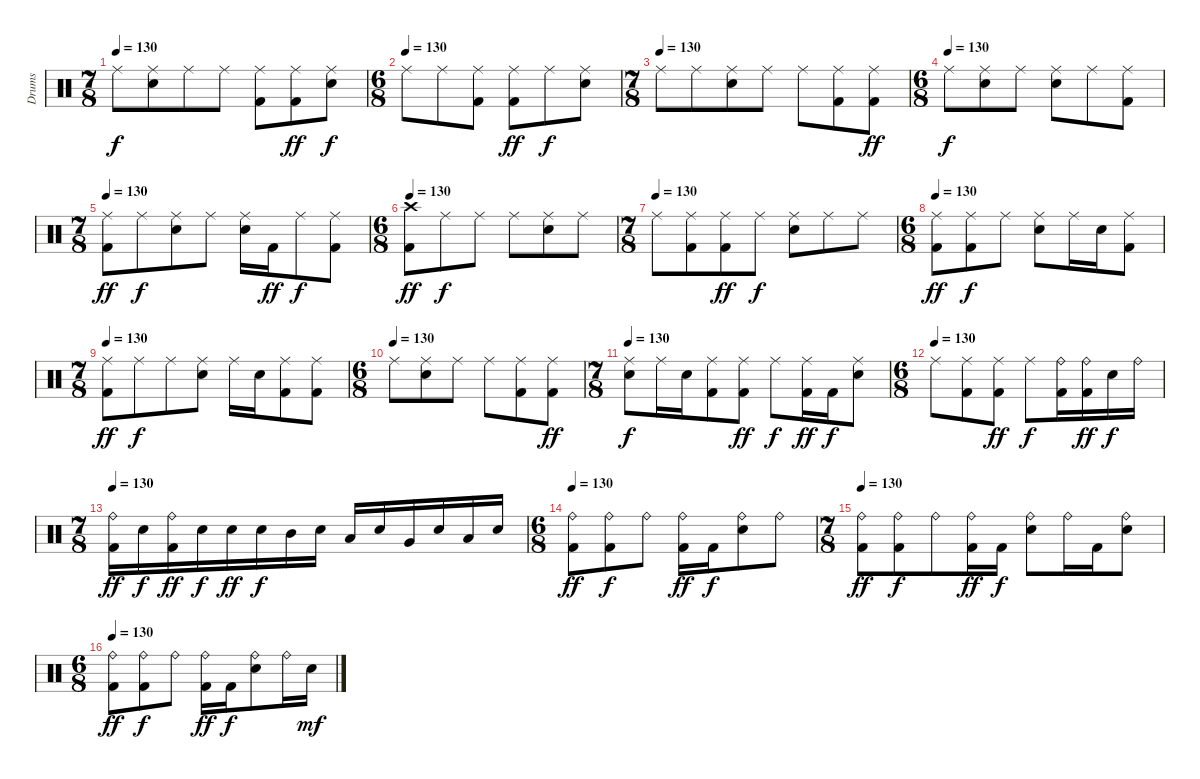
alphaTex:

\track ("Drums" "Drums") {instrument percussion}
\staff {score}
\articulation defaults
\ts (7 8)
\tempo 130
\clef neutral
\ks c "Ride (middle)".8{dy f}
("Electric Snare (hit)" "Ride (middle)").8 "Ride (middle)".8 "Ride (middle)".8 ("Kick (hit) 2" "Ride (middle)").8 ("Kick (hit) 2" "Ride (middle)").8{dy ff} ("Electric Snare (hit)" "Ride (middle)").8{dy f} |
\ts (6 8)
\tempo (130)
"Ride (middle)".8 "Ride (middle)".8 ("Kick (hit) 2" "Ride (middle)").8 ("Kick (hit) 2" "Ride (middle)").8{dy ff} "Ride (middle)".8{dy f} ("Electric Snare (hit)" "Ride (middle)").8 |
\ts (7 8)
\tempo (130)
"Ride (middle)".8 "Ride (middle)".8 ("Electric Snare (hit)" "Ride (middle)").8 "Ride (middle)".8 "Ride (middle)".8 ("Kick (hit) 2" "Ride (middle)").8 ("Kick (hit) 2" "Ride (middle)").8{dy ff} |
\ts (6 8)
\tempo (130)
"Ride (middle)".8{dy f} ("Electric Snare (hit)" "Ride (middle)").8 "Ride (middle)".8 ("Electric Snare (hit)" "Ride (middle)").8 "Ride (middle)".8 ("Kick (hit) 2" "Ride (middle)").8 |
\ts (7 8)
\tempo 130
("Kick (hit) 2" "Ride (middle)").8{dy ff} "Ride (middle)".8{dy f} ("Electric Snare (hit)" "Ride (middle)").8 "Ride (middle)".8 ("Electric Snare (hit)" "Ride (middle)").16 "Kick (hit) 2".16{dy ff} "Ride (middle)".8{dy f} ("Kick (hit) 2" "Ride (middle)").8 |
\ts (6 8)
\tempo 130
("Crash high (hit)" "Kick (hit) 2").8{dy ff} "Ride (middle)".8{dy f} "Ride (middle)".8 "Ride (middle)".8 ("Ride (middle)" "Electric Snare (hit)").8 "Ride (middle)".8 |
\ts (7 8)
\tempo (130)
"Ride (middle)".8 ("Ride (middle)" "Kick (hit) 2").8 ("Kick (hit) 2" "Ride (middle)").8{dy ff} "Ride (middle)".8{dy f} ("Electric Snare (hit)" "Ride (middle)").8 "Ride (middle)".8 "Ride (middle)".8 |
\ts (6 8)
\tempo 130
("Ride (middle)" "Kick (hit) 2").8{dy ff} ("Kick (hit) 2" "Ride (middle)").8{dy f} "Ride (middle)".8 ("Electric Snare (hit)" "Ride (middle)").8 "Ride (middle)".16 "Electric Snare (hit)".16 ("Kick (hit) 2" "Ride (middle)").8 |
\ts (7 8)
\tempo 130
("Kick (hit) 2" "Ride (middle)").8{dy ff} "Ride (middle)".8{dy f} "Ride (middle)".8 ("Electric Snare (hit)" "Ride (middle)").8 "Ride (middle)".16 "Electric Snare (hit)".16 ("Kick (hit) 2" "Ride (middle)").8 ("Kick (hit) 2" "Ride (middle)").8 |
\ts (6 8)
\tempo (130)
"Ride (middle)".8 ("Electric Snare (hit)" "Ride (middle)").8 "Ride (middle)".8 "Ride (middle)".8 ("Kick (hit) 2" "Ride (middle)").8 ("Kick (hit) 2" "Ride (middle)").8{dy ff} |
\ts (7 8)
\tempo 130
("Electric Snare (hit)" "Ride (middle)").8{dy f} "Ride (middle)".16 "Electric Snare (hit)".16 ("Kick (hit) 2" "Ride (middle)").8 ("Kick (hit) 2" "Ride (middle)").8{dy ff} "Ride (middle)".8{dy f} ("Ride (middle)" "Kick (hit) 2").16{dy ff} "Kick (hit) 2".16{dy f} ("Ride (middle)" "Electric Snare (hit)").8 |
\ts (6 8)
\tempo (130)
"Ride (middle)".8 ("Kick (hit) 2" "Ride (middle)").8 ("Kick (hit) 2" "Ride (middle)").8{dy ff} "Ride (middle)".8{dy f} ("Ride (bell)" "Kick (hit) 2").16 ("Ride (bell)" "Kick (hit) 2").16{dy ff} "Electric Snare (hit)".16{dy f} "Ride (bell)".16 |
\ts (7 8)
\tempo 130
("Kick (hit) 2" "Ride (bell)").16{dy ff} "Electric Snare (hit)".16{dy f} ("Kick (hit) 2" "Ride (bell)").16{dy ff} "Electric Snare (hit)".16{dy f} "Electric Snare (hit)".16{dy ff} "Electric Snare (hit)".16{dy f} "Mid Tom (hit)".16 "Electric Snare (hit)".16 "Low Tom (hit)".16 "Electric Snare (hit)".16 "Very Low Tom (hit)".16 "Electric Snare (hit)".16 "Low Floor Tom (hit)".16 "Electric Snare (hit)".16 |
\ts (6 8)
\tempo 130
("Ride (bell)" "Kick (hit) 2").8{dy ff} ("Ride (bell)" "Kick (hit) 2").8{dy f} "Ride (bell)".8 ("Ride (bell)" "Kick (hit) 2").16{dy ff} "Kick (hit) 2".16{dy f} ("Ride (bell)" "Electric Snare (hit)").8 "Ride (bell)".8 |
\ts (7 8)
\tempo 130
("Ride (bell)" "Kick (hit) 2").8{dy ff} ("Ride (bell)" "Kick (hit) 2").8{dy f} "Ride (bell)".8 ("Ride (bell)" "Kick (hit) 2").16{dy ff} "Kick (hit) 2".16{dy f} ("Ride (bell)" "Electric Snare (hit)").8 "Ride (bell)".16 "Kick (hit) 2".16 ("Ride (bell)" "Electric Snare (hit)").8 |
\ts (6 8)
\tempo 130
("Ride (bell)" "Kick (hit) 2").8{dy ff} ("Ride (bell)" "Kick (hit) 2").8{dy f} "Ride (bell)".8 ("Ride (bell)" "Kick (hit) 2").16{dy ff} "Kick (hit) 2".16{dy f} ("Ride (bell)" "Electric Snare (hit)").8 "Ride (bell)".16 "Electric Snare (hit)".16{dy mf}
